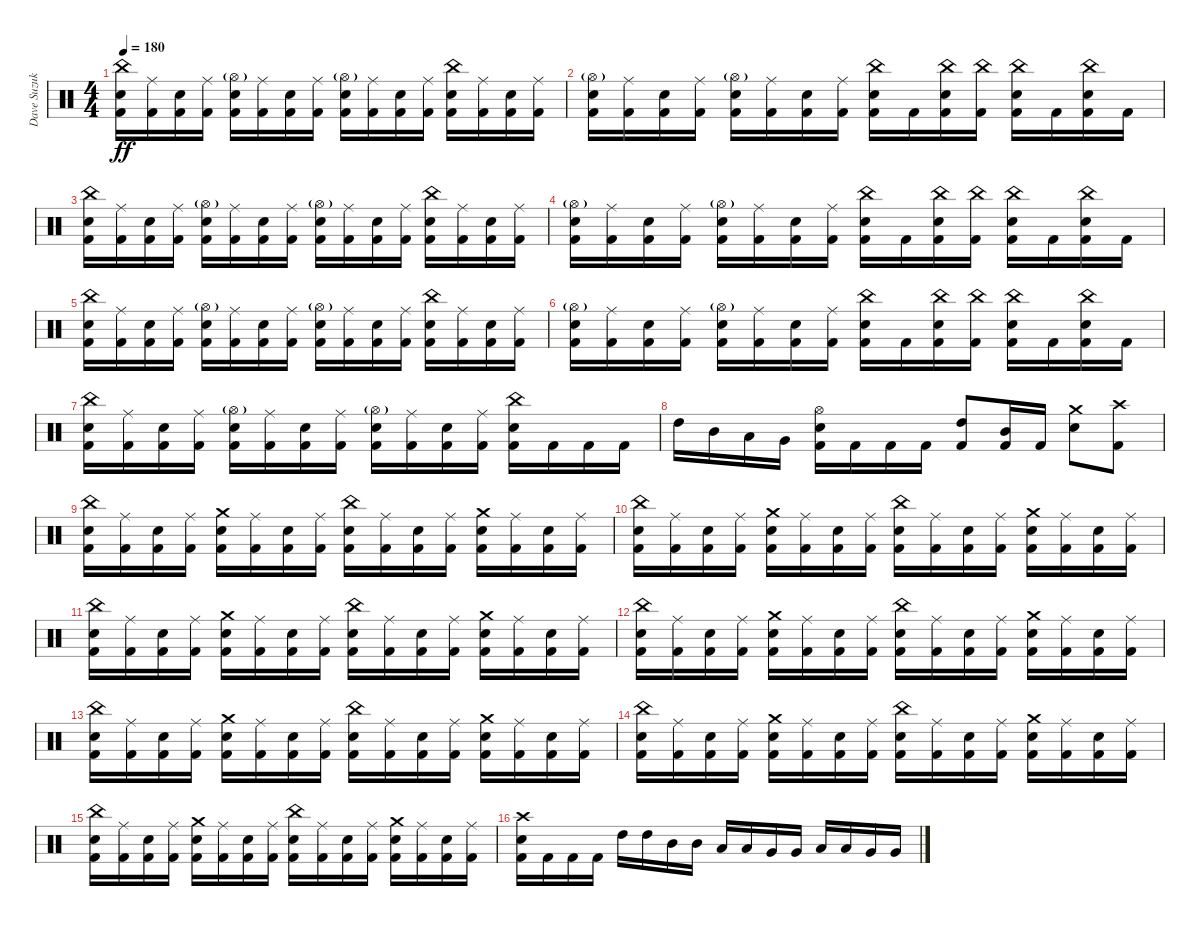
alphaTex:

\track ("Dave Suzuki - Drums" "Dave Suzuk") {instrument percussion}
\staff {score}
\articulation defaults
\ts (4 4)
\tempo 180
\clef neutral
\ks c
("China (hit)" "Electric Snare (hit)" "Kick (hit) 2").16{dy ff} ("Ride (middle)" "Kick (hit) 2").16 ("Electric Snare (hit)" "Kick (hit) 2").16 ("Ride (middle)" "Kick (hit) 2").16 ("Hi-Hat (open)"{g} "Electric Snare (hit)" "Kick (hit) 2").16 ("Ride (middle)" "Kick (hit) 2").16 ("Electric Snare (hit)" "Kick (hit) 2").16 ("Ride (middle)" "Kick (hit) 2").16 ("Hi-Hat (open)"{g} "Electric Snare (hit)" "Kick (hit) 2").16 ("Ride (middle)" "Kick (hit) 2").16 ("Electric Snare (hit)" "Kick (hit) 2").16 ("Ride (middle)" "Kick (hit) 2").16 ("China (hit)" "Electric Snare (hit)" "Kick (hit) 2").16 ("Ride (middle)" "Kick (hit) 2").16 ("Electric Snare (hit)" "Kick (hit) 2").16 ("Ride (middle)" "Kick (hit) 2").16 |
("Hi-Hat (open)"{g} "Electric Snare (hit)" "Kick (hit) 2").16 ("Ride (middle)" "Kick (hit) 2").16 ("Electric Snare (hit)" "Kick (hit) 2").16 ("Ride (middle)" "Kick (hit) 2").16 ("Hi-Hat (open)"{g} "Electric Snare (hit)" "Kick (hit) 2").16 ("Ride (middle)" "Kick (hit) 2").16 ("Electric Snare (hit)" "Kick (hit) 2").16 ("Ride (middle)" "Kick (hit) 2").16 ("China (hit)" "Electric Snare (hit)" "Kick (hit) 2").16 "Kick (hit) 2".16 ("China (hit)" "Electric Snare (hit)" "Kick (hit) 2").16 ("China (hit)" "Kick (hit) 2").16 ("China (hit)" "Electric Snare (hit)" "Kick (hit) 2").16 "Kick (hit) 2".16 ("China (hit)" "Electric Snare (hit)" "Kick (hit) 2").16 "Kick (hit) 2".16 |
("China (hit)" "Electric Snare (hit)" "Kick (hit) 2").16 ("Ride (middle)" "Kick (hit) 2").16 ("Electric Snare (hit)" "Kick (hit) 2").16 ("Ride (middle)" "Kick (hit) 2").16 ("Hi-Hat (open)"{g} "Electric Snare (hit)" "Kick (hit) 2").16 ("Ride (middle)" "Kick (hit) 2").16 ("Electric Snare (hit)" "Kick (hit) 2").16 ("Ride (middle)" "Kick (hit) 2").16 ("Hi-Hat (open)"{g} "Electric Snare (hit)" "Kick (hit) 2").16 ("Ride (middle)" "Kick (hit) 2").16 ("Electric Snare (hit)" "Kick (hit) 2").16 ("Ride (middle)" "Kick (hit) 2").16 ("China (hit)" "Electric Snare (hit)" "Kick (hit) 2").16 ("Ride (middle)" "Kick (hit) 2").16 ("Electric Snare (hit)" "Kick (hit) 2").16 ("Ride (middle)" "Kick (hit) 2").16 |
("Hi-Hat (open)"{g} "Electric Snare (hit)" "Kick (hit) 2").16 ("Ride (middle)" "Kick (hit) 2").16 ("Electric Snare (hit)" "Kick (hit) 2").16 ("Ride (middle)" "Kick (hit) 2").16 ("Hi-Hat (open)"{g} "Electric Snare (hit)" "Kick (hit) 2").16 ("Ride (middle)" "Kick (hit) 2").16 ("Electric Snare (hit)" "Kick (hit) 2").16 ("Ride (middle)" "Kick (hit) 2").16 ("China (hit)" "Electric Snare (hit)" "Kick (hit) 2").16 "Kick (hit) 2".16 ("China (hit)" "Electric Snare (hit)" "Kick (hit) 2").16 ("China (hit)" "Kick (hit) 2").16 ("China (hit)" "Electric Snare (hit)" "Kick (hit) 2").16 "Kick (hit) 2".16 ("China (hit)" "Electric Snare (hit)" "Kick (hit) 2").16 "Kick (hit) 2".16 |
("China (hit)" "Electric Snare (hit)" "Kick (hit) 2").16 ("Ride (middle)" "Kick (hit) 2").16 ("Electric Snare (hit)" "Kick (hit) 2").16 ("Ride (middle)" "Kick (hit) 2").16 ("Hi-Hat (open)"{g} "Electric Snare (hit)" "Kick (hit) 2").16 ("Ride (middle)" "Kick (hit) 2").16 ("Electric Snare (hit)" "Kick (hit) 2").16 ("Ride (middle)" "Kick (hit) 2").16 ("Hi-Hat (open)"{g} "Electric Snare (hit)" "Kick (hit) 2").16 ("Ride (middle)" "Kick (hit) 2").16 ("Electric Snare (hit)" "Kick (hit) 2").16 ("Ride (middle)" "Kick (hit) 2").16 ("China (hit)" "Electric Snare (hit)" "Kick (hit) 2").16 ("Ride (middle)" "Kick (hit) 2").16 ("Electric Snare (hit)" "Kick (hit) 2").16 ("Ride (middle)" "Kick (hit) 2").16 |
("Hi-Hat (open)"{g} "Electric Snare (hit)" "Kick (hit) 2").16 ("Ride (middle)" "Kick (hit) 2").16 ("Electric Snare (hit)" "Kick (hit) 2").16 ("Ride (middle)" "Kick (hit) 2").16 ("Hi-Hat (open)"{g} "Electric Snare (hit)" "Kick (hit) 2").16 ("Ride (middle)" "Kick (hit) 2").16 ("Electric Snare (hit)" "Kick (hit) 2").16 ("Ride (middle)" "Kick (hit) 2").16 ("China (hit)" "Electric Snare (hit)" "Kick (hit) 2").16 "Kick (hit) 2".16 ("China (hit)" "Electric Snare (hit)" "Kick (hit) 2").16 ("China (hit)" "Kick (hit) 2").16 ("China (hit)" "Electric Snare (hit)" "Kick (hit) 2").16 "Kick (hit) 2".16 ("China (hit)" "Electric Snare (hit)" "Kick (hit) 2").16 "Kick (hit) 2".16 |
("China (hit)" "Electric Snare (hit)" "Kick (hit) 2").16 ("Ride (middle)" "Kick (hit) 2").16 ("Electric Snare (hit)" "Kick (hit) 2").16 ("Ride (middle)" "Kick (hit) 2").16 ("Hi-Hat (open)"{g} "Electric Snare (hit)" "Kick (hit) 2").16 ("Ride (middle)" "Kick (hit) 2").16 ("Electric Snare (hit)" "Kick (hit) 2").16 ("Ride (middle)" "Kick (hit) 2").16 ("Hi-Hat (open)"{g} "Electric Snare (hit)" "Kick (hit) 2").16 ("Ride (middle)" "Kick (hit) 2").16 ("Electric Snare (hit)" "Kick (hit) 2").16 ("Ride (middle)" "Kick (hit) 2").16 ("China (hit)" "Electric Snare (hit)" "Kick (hit) 2").16 "Kick (hit) 2".16 "Kick (hit) 2".16 "Kick (hit) 2".16 |
"High Tom (hit)".16 "Mid Tom (hit)".16 "Low Tom (hit)".16 "Very Low Tom (hit)".16 ("Hi-Hat (open)" "Electric Snare (hit)" "Kick (hit) 2").16 "Kick (hit) 2".16 "Kick (hit) 2".16 "Kick (hit) 2".16 ("High Tom (hit)" "Kick (hit) 2").8 ("Mid Tom (hit)" "Kick (hit) 2").16 "Kick (hit) 2".16 ("Crash medium (hit)" "Electric Snare (hit)").8 ("Crash high (hit)" "Kick (hit) 2").8 |
("China (hit)" "Electric Snare (hit)" "Kick (hit) 2").16 ("Ride (middle)" "Kick (hit) 2").16 ("Electric Snare (hit)" "Kick (hit) 2").16 ("Ride (middle)" "Kick (hit) 2").16 ("Crash medium (hit)" "Electric Snare (hit)" "Kick (hit) 2").16 ("Ride (middle)" "Kick (hit) 2").16 ("Electric Snare (hit)" "Kick (hit) 2").16 ("Ride (middle)" "Kick (hit) 2").16 ("China (hit)" "Electric Snare (hit)" "Kick (hit) 2").16 ("Ride (middle)" "Kick (hit) 2").16 ("Electric Snare (hit)" "Kick (hit) 2").16 ("Ride (middle)" "Kick (hit) 2").16 ("Crash medium (hit)" "Electric Snare (hit)" "Kick (hit) 2").16 ("Ride (middle)" "Kick (hit) 2").16 ("Electric Snare (hit)" "Kick (hit) 2").16 ("Ride (middle)" "Kick (hit) 2").16 |
("China (hit)" "Electric Snare (hit)" "Kick (hit) 2").16 ("Ride (middle)" "Kick (hit) 2").16 ("Electric Snare (hit)" "Kick (hit) 2").16 ("Ride (middle)" "Kick (hit) 2").16 ("Crash medium (hit)" "Electric Snare (hit)" "Kick (hit) 2").16 ("Ride (middle)" "Kick (hit) 2").16 ("Electric Snare (hit)" "Kick (hit) 2").16 ("Ride (middle)" "Kick (hit) 2").16 ("China (hit)" "Electric Snare (hit)" "Kick (hit) 2").16 ("Ride (middle)" "Kick (hit) 2").16 ("Electric Snare (hit)" "Kick (hit) 2").16 ("Ride (middle)" "Kick (hit) 2").16 ("Crash medium (hit)" "Electric Snare (hit)" "Kick (hit) 2").16 ("Ride (middle)" "Kick (hit) 2").16 ("Electric Snare (hit)" "Kick (hit) 2").16 ("Ride (middle)" "Kick (hit) 2").16 |
("China (hit)" "Electric Snare (hit)" "Kick (hit) 2").16 ("Ride (middle)" "Kick (hit) 2").16 ("Electric Snare (hit)" "Kick (hit) 2").16 ("Ride (middle)" "Kick (hit) 2").16 ("Crash medium (hit)" "Electric Snare (hit)" "Kick (hit) 2").16 ("Ride (middle)" "Kick (hit) 2").16 ("Electric Snare (hit)" "Kick (hit) 2").16 ("Ride (middle)" "Kick (hit) 2").16 ("China (hit)" "Electric Snare (hit)" "Kick (hit) 2").16 ("Ride (middle)" "Kick (hit) 2").16 ("Electric Snare (hit)" "Kick (hit) 2").16 ("Ride (middle)" "Kick (hit) 2").16 ("Crash medium (hit)" "Electric Snare (hit)" "Kick (hit) 2").16 ("Ride (middle)" "Kick (hit) 2").16 ("Electric Snare (hit)" "Kick (hit) 2").16 ("Ride (middle)" "Kick (hit) 2").16 |
("China (hit)" "Electric Snare (hit)" "Kick (hit) 2").16 ("Ride (middle)" "Kick (hit) 2").16 ("Electric Snare (hit)" "Kick (hit) 2").16 ("Ride (middle)" "Kick (hit) 2").16 ("Crash medium (hit)" "Electric Snare (hit)" "Kick (hit) 2").16 ("Ride (middle)" "Kick (hit) 2").16 ("Electric Snare (hit)" "Kick (hit) 2").16 ("Ride (middle)" "Kick (hit) 2").16 ("China (hit)" "Electric Snare (hit)" "Kick (hit) 2").16 ("Ride (middle)" "Kick (hit) 2").16 ("Electric Snare (hit)" "Kick (hit) 2").16 ("Ride (middle)" "Kick (hit) 2").16 ("Crash medium (hit)" "Electric Snare (hit)" "Kick (hit) 2").16 ("Ride (middle)" "Kick (hit) 2").16 ("Electric Snare (hit)" "Kick (hit) 2").16 ("Ride (middle)" "Kick (hit) 2").16 |
("China (hit)" "Electric Snare (hit)" "Kick (hit) 2").16 ("Ride (middle)" "Kick (hit) 2").16 ("Electric Snare (hit)" "Kick (hit) 2").16 ("Ride (middle)" "Kick (hit) 2").16 ("Crash medium (hit)" "Electric Snare (hit)" "Kick (hit) 2").16 ("Ride (middle)" "Kick (hit) 2").16 ("Electric Snare (hit)" "Kick (hit) 2").16 ("Ride (middle)" "Kick (hit) 2").16 ("China (hit)" "Electric Snare (hit)" "Kick (hit) 2").16 ("Ride (middle)" "Kick (hit) 2").16 ("Electric Snare (hit)" "Kick (hit) 2").16 ("Ride (middle)" "Kick (hit) 2").16 ("Crash medium (hit)" "Electric Snare (hit)" "Kick (hit) 2").16 ("Ride (middle)" "Kick (hit) 2").16 ("Electric Snare (hit)" "Kick (hit) 2").16 ("Ride (middle)" "Kick (hit) 2").16 |
("China (hit)" "Electric Snare (hit)" "Kick (hit) 2").16 ("Ride (middle)" "Kick (hit) 2").16 ("Electric Snare (hit)" "Kick (hit) 2").16 ("Ride (middle)" "Kick (hit) 2").16 ("Crash medium (hit)" "Electric Snare (hit)" "Kick (hit) 2").16 ("Ride (middle)" "Kick (hit) 2").16 ("Electric Snare (hit)" "Kick (hit) 2").16 ("Ride (middle)" "Kick (hit) 2").16 ("China (hit)" "Electric Snare (hit)" "Kick (hit) 2").16 ("Ride (middle)" "Kick (hit) 2").16 ("Electric Snare (hit)" "Kick (hit) 2").16 ("Ride (middle)" "Kick (hit) 2").16 ("Crash medium (hit)" "Electric Snare (hit)" "Kick (hit) 2").16 ("Ride (middle)" "Kick (hit) 2").16 ("Electric Snare (hit)" "Kick (hit) 2").16 ("Ride (middle)" "Kick (hit) 2").16 |
("China (hit)" "Electric Snare (hit)" "Kick (hit) 2").16 ("Ride (middle)" "Kick (hit) 2").16 ("Electric Snare (hit)" "Kick (hit) 2").16 ("Ride (middle)" "Kick (hit) 2").16 ("Crash medium (hit)" "Electric Snare (hit)" "Kick (hit) 2").16 ("Ride (middle)" "Kick (hit) 2").16 ("Electric Snare (hit)" "Kick (hit) 2").16 ("Ride (middle)" "Kick (hit) 2").16 ("China (hit)" "Electric Snare (hit)" "Kick (hit) 2").16 ("Ride (middle)" "Kick (hit) 2").16 ("Electric Snare (hit)" "Kick (hit) 2").16 ("Ride (middle)" "Kick (hit) 2").16 ("Crash medium (hit)" "Electric Snare (hit)" "Kick (hit) 2").16 ("Ride (middle)" "Kick (hit) 2").16 ("Electric Snare (hit)" "Kick (hit) 2").16 ("Ride (middle)" "Kick (hit) 2").16 |
("Crash high (hit)" "Electric Snare (hit)" "Kick (hit) 2").16 "Kick (hit) 2".16 "Kick (hit) 2".16 "Kick (hit) 2".16 "High Tom (hit)".16 "High Tom (hit)".16 "Mid Tom (hit)".16 "Mid Tom (hit)".16 "Low Tom (hit)".16 "Low Tom (hit)".16 "Very Low Tom (hit)".16 "Very Low Tom (hit)".16 "Low Tom (hit)".16 "Low Tom (hit)".16 "Very Low Tom (hit)".16 "Very Low Tom (hit)".16
